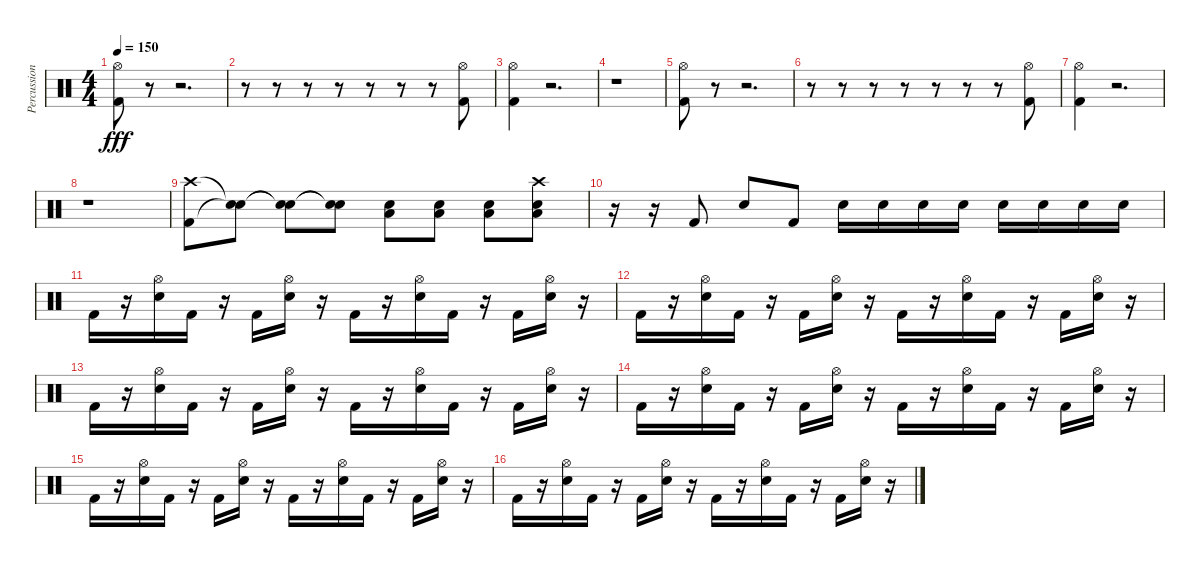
\track ("Percussion" "Percussion") {instrument percussion}
\staff {score}
\articulation defaults
\ts (4 4)
\tempo 150
\clef neutral
\ks c
("Kick (hit) 2" "Hi-Hat (open)").8{dy fff} r.8 r.2{d} |
r.8 r.8 r.8 r.8 r.8 r.8 r.8 ("Kick (hit) 2" "Hi-Hat (open)").8 |
("Kick (hit) 2" "Hi-Hat (open)").4 r.2{d} |
r.1 |
("Kick (hit) 2" "Hi-Hat (open)").8 r.8 r.2{d} |
r.8 r.8 r.8 r.8 r.8 r.8 r.8 ("Kick (hit) 2" "Hi-Hat (open)").8 |
("Kick (hit) 2" "Hi-Hat (open)").4 r.2{d} |
r.1 |
("Kick (hit) 2" "Crash high (hit)").8 ("Snare (hit)"{t} "Snare (hit)"{t}).8 ("Snare (hit)"{t} "Snare (hit)"{t}).8 ("Snare (hit)"{t} "Snare (hit)"{t}).8 ("Low Tom (hit)" "Snare (hit) 2").8 ("Low Tom (hit)" "Snare (hit) 2").8 ("Low Tom (hit)" "Snare (hit) 2").8 ("Low Tom (hit)" "Snare (hit) 2" "Crash high (hit)").8 |
r.16 r.16 "Kick (hit) 2".8 "Snare (hit) 2".8 "Kick (hit) 2".8 "Snare (hit) 2".16 "Snare (hit) 2".16 "Snare (hit) 2".16 "Snare (hit) 2".16 "Snare (hit) 2".16 "Snare (hit) 2".16 "Snare (hit) 2".16 "Snare (hit) 2".16 |
"Kick (hit) 2".16 r.16 ("Snare (hit) 2" "Hi-Hat (open)").16 "Kick (hit) 2".16 r.16 "Kick (hit) 2".16 ("Snare (hit) 2" "Hi-Hat (open)").16 r.16 "Kick (hit) 2".16 r.16 ("Snare (hit) 2" "Hi-Hat (open)").16 "Kick (hit) 2".16 r.16 "Kick (hit) 2".16 ("Snare (hit) 2" "Hi-Hat (open)").16 r.16 |
"Kick (hit) 2".16 r.16 ("Snare (hit) 2" "Hi-Hat (open)").16 "Kick (hit) 2".16 r.16 "Kick (hit) 2".16 ("Snare (hit) 2" "Hi-Hat (open)").16 r.16 "Kick (hit) 2".16 r.16 ("Snare (hit) 2" "Hi-Hat (open)").16 "Kick (hit) 2".16 r.16 "Kick (hit) 2".16 ("Snare (hit) 2" "Hi-Hat (open)").16 r.16 |
"Kick (hit) 2".16 r.16 ("Snare (hit) 2" "Hi-Hat (open)").16 "Kick (hit) 2".16 r.16 "Kick (hit) 2".16 ("Snare (hit) 2" "Hi-Hat (open)").16 r.16 "Kick (hit) 2".16 r.16 ("Snare (hit) 2" "Hi-Hat (open)").16 "Kick (hit) 2".16 r.16 "Kick (hit) 2".16 ("Snare (hit) 2" "Hi-Hat (open)").16 r.16 |
"Kick (hit) 2".16 r.16 ("Snare (hit) 2" "Hi-Hat (open)").16 "Kick (hit) 2".16 r.16 "Kick (hit) 2".16 ("Snare (hit) 2" "Hi-Hat (open)").16 r.16 "Kick (hit) 2".16 r.16 ("Snare (hit) 2" "Hi-Hat (open)").16 "Kick (hit) 2".16 r.16 "Kick (hit) 2".16 ("Snare (hit) 2" "Hi-Hat (open)").16 r.16 |
"Kick (hit) 2".16 r.16 ("Snare (hit) 2" "Hi-Hat (open)").16 "Kick (hit) 2".16 r.16 "Kick (hit) 2".16 ("Snare (hit) 2" "Hi-Hat (open)").16 r.16 "Kick (hit) 2".16 r.16 ("Snare (hit) 2" "Hi-Hat (open)").16 "Kick (hit) 2".16 r.16 "Kick (hit) 2".16 ("Snare (hit) 2" "Hi-Hat (open)").16 r.16 |
"Kick (hit) 2".16 r.16 ("Snare (hit) 2" "Hi-Hat (open)").16 "Kick (hit) 2".16 r.16 "Kick (hit) 2".16 ("Snare (hit) 2" "Hi-Hat (open)").16 r.16 "Kick (hit) 2".16 r.16 ("Snare (hit) 2" "Hi-Hat (open)").16 "Kick (hit) 2".16 r.16 "Kick (hit) 2".16 ("Snare (hit) 2" "Hi-Hat (open)").16 r.16
